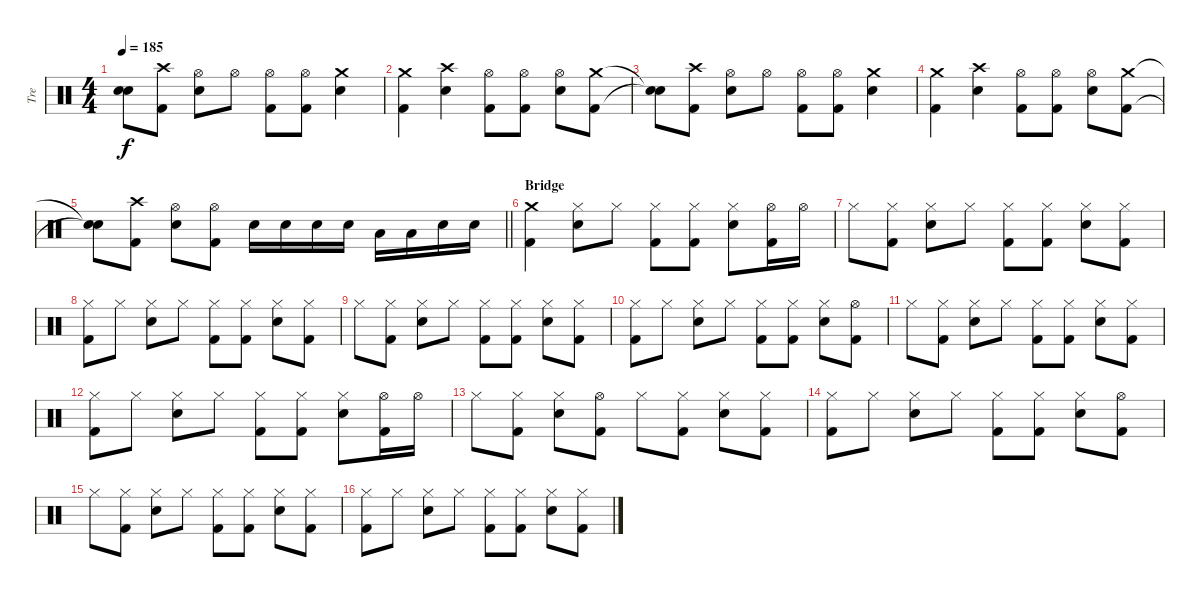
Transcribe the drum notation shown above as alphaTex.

\track ("Tre" "Tre") {instrument percussion}
\staff {score}
\articulation defaults
\ts (4 4)
\tempo 185
\clef neutral
\ks c
("Snare (hit)"{t} "Snare (hit)"{t}).8{dy f} ("Crash high (hit)" "Kick (hit) 2").8 ("Hi-Hat (open)" "Electric Snare (hit)").8 "Hi-Hat (open)".8 ("Hi-Hat (open)" "Kick (hit) 2").8 ("Hi-Hat (open)" "Kick (hit) 2").8 ("Crash medium (hit)" "Electric Snare (hit)").4 |
("Crash medium (hit)" "Kick (hit) 2").4 ("Crash high (hit)" "Electric Snare (hit)").4 ("Hi-Hat (open)" "Kick (hit) 2").8 ("Hi-Hat (open)" "Kick (hit) 2").8 ("Hi-Hat (open)" "Electric Snare (hit)").8 ("Crash medium (hit)" "Kick (hit) 2").8 |
("Snare (hit)"{t} "Snare (hit)"{t}).8 ("Crash high (hit)" "Kick (hit) 2").8 ("Hi-Hat (open)" "Electric Snare (hit)").8 "Hi-Hat (open)".8 ("Hi-Hat (open)" "Kick (hit) 2").8 ("Hi-Hat (open)" "Kick (hit) 2").8 ("Crash medium (hit)" "Electric Snare (hit)").4 |
("Crash medium (hit)" "Kick (hit) 2").4 ("Crash high (hit)" "Electric Snare (hit)").4 ("Hi-Hat (open)" "Kick (hit) 2").8 ("Hi-Hat (open)" "Kick (hit) 2").8 ("Hi-Hat (open)" "Electric Snare (hit)").8 ("Crash medium (hit)" "Kick (hit) 2").8 |
\barLineRight lightlight
("Snare (hit)"{t} "Snare (hit)"{t}).8 ("Crash high (hit)" "Kick (hit) 2").8 ("Hi-Hat (open)" "Electric Snare (hit)").8 ("Hi-Hat (open)" "Kick (hit) 2").8 "Electric Snare (hit)".16 "Electric Snare (hit)".16 "Electric Snare (hit)".16 "Electric Snare (hit)".16 "Low Tom (hit)".16 "Low Tom (hit)".16 "Electric Snare (hit)".16 "Electric Snare (hit)".16 |
\section ("" "Bridge")
("Crash medium (hit)" "Kick (hit) 2").4 ("Hi-Hat (closed)" "Electric Snare (hit)").8 "Hi-Hat (closed)".8 ("Hi-Hat (closed)" "Kick (hit) 2").8 ("Hi-Hat (closed)" "Kick (hit) 2").8 ("Hi-Hat (closed)" "Electric Snare (hit)").8 ("Hi-Hat (open)" "Kick (hit) 2").16 "Hi-Hat (open)".16 |
"Hi-Hat (closed)".8 ("Hi-Hat (closed)" "Kick (hit) 2").8 ("Hi-Hat (closed)" "Electric Snare (hit)").8 "Hi-Hat (closed)".8 ("Hi-Hat (closed)" "Kick (hit) 2").8 ("Hi-Hat (closed)" "Kick (hit) 2").8 ("Hi-Hat (closed)" "Electric Snare (hit)").8 ("Hi-Hat (closed)" "Kick (hit) 2").8 |
("Hi-Hat (closed)" "Kick (hit) 2").8 "Hi-Hat (closed)".8 ("Hi-Hat (closed)" "Electric Snare (hit)").8 "Hi-Hat (closed)".8 ("Hi-Hat (closed)" "Kick (hit) 2").8 ("Hi-Hat (closed)" "Kick (hit) 2").8 ("Hi-Hat (closed)" "Electric Snare (hit)").8 ("Hi-Hat (closed)" "Kick (hit) 2").8 |
"Hi-Hat (closed)".8 ("Hi-Hat (closed)" "Kick (hit) 2").8 ("Hi-Hat (closed)" "Electric Snare (hit)").8 "Hi-Hat (closed)".8 ("Hi-Hat (closed)" "Kick (hit) 2").8 ("Hi-Hat (closed)" "Kick (hit) 2").8 ("Hi-Hat (closed)" "Electric Snare (hit)").8 ("Hi-Hat (closed)" "Kick (hit) 2").8 |
("Hi-Hat (closed)" "Kick (hit) 2").8 "Hi-Hat (closed)".8 ("Hi-Hat (closed)" "Electric Snare (hit)").8 "Hi-Hat (closed)".8 ("Hi-Hat (closed)" "Kick (hit) 2").8 ("Hi-Hat (closed)" "Kick (hit) 2").8 ("Hi-Hat (closed)" "Electric Snare (hit)").8 ("Hi-Hat (open)" "Kick (hit) 2").8 |
"Hi-Hat (closed)".8 ("Hi-Hat (closed)" "Kick (hit) 2").8 ("Hi-Hat (closed)" "Electric Snare (hit)").8 "Hi-Hat (closed)".8 ("Hi-Hat (closed)" "Kick (hit) 2").8 ("Hi-Hat (closed)" "Kick (hit) 2").8 ("Hi-Hat (closed)" "Electric Snare (hit)").8 ("Hi-Hat (closed)" "Kick (hit) 2").8 |
("Hi-Hat (closed)" "Kick (hit) 2").8 "Hi-Hat (closed)".8 ("Hi-Hat (closed)" "Electric Snare (hit)").8 "Hi-Hat (closed)".8 ("Hi-Hat (closed)" "Kick (hit) 2").8 ("Hi-Hat (closed)" "Kick (hit) 2").8 ("Hi-Hat (closed)" "Electric Snare (hit)").8 ("Hi-Hat (open)" "Kick (hit) 2").16 "Hi-Hat (open)".16 |
"Hi-Hat (closed)".8 ("Hi-Hat (closed)" "Kick (hit) 2").8 ("Hi-Hat (closed)" "Electric Snare (hit)").8 ("Hi-Hat (open)" "Kick (hit) 2").8 "Hi-Hat (closed)".8 ("Hi-Hat (closed)" "Kick (hit) 2").8 ("Hi-Hat (closed)" "Electric Snare (hit)").8 ("Hi-Hat (closed)" "Kick (hit) 2").8 |
("Hi-Hat (closed)" "Kick (hit) 2").8 "Hi-Hat (closed)".8 ("Hi-Hat (closed)" "Electric Snare (hit)").8 "Hi-Hat (closed)".8 ("Hi-Hat (closed)" "Kick (hit) 2").8 ("Hi-Hat (closed)" "Kick (hit) 2").8 ("Hi-Hat (closed)" "Electric Snare (hit)").8 ("Hi-Hat (open)" "Kick (hit) 2").8 |
"Hi-Hat (closed)".8 ("Hi-Hat (closed)" "Kick (hit) 2").8 ("Hi-Hat (closed)" "Electric Snare (hit)").8 "Hi-Hat (closed)".8 ("Hi-Hat (closed)" "Kick (hit) 2").8 ("Hi-Hat (closed)" "Kick (hit) 2").8 ("Hi-Hat (closed)" "Electric Snare (hit)").8 ("Hi-Hat (closed)" "Kick (hit) 2").8 |
("Hi-Hat (closed)" "Kick (hit) 2").8 "Hi-Hat (closed)".8 ("Hi-Hat (closed)" "Electric Snare (hit)").8 "Hi-Hat (closed)".8 ("Hi-Hat (closed)" "Kick (hit) 2").8 ("Hi-Hat (closed)" "Kick (hit) 2").8 ("Hi-Hat (closed)" "Electric Snare (hit)").8 ("Hi-Hat (closed)" "Kick (hit) 2").8
